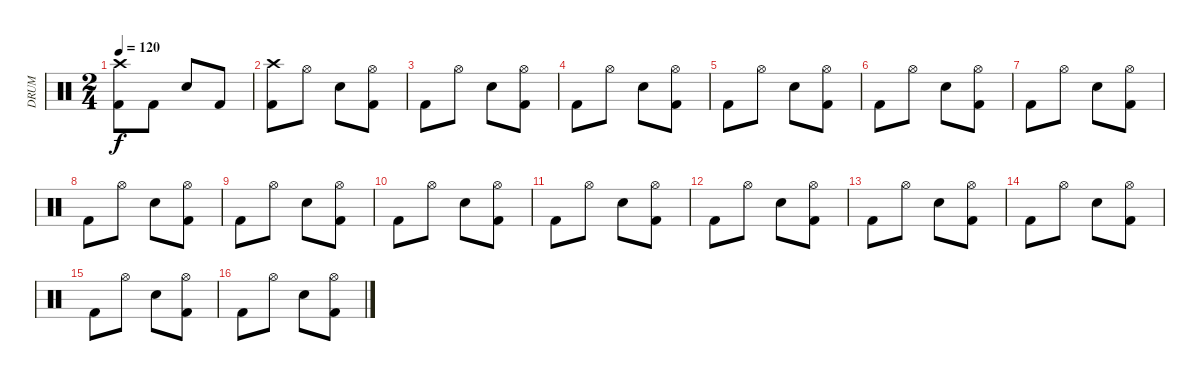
\track ("DRUM" "DRUM") {instrument percussion}
\staff {score}
\articulation defaults
\ts (2 4)
\tempo 120
\clef neutral
\ks c
("Crash high (hit)" "Kick (hit) 2").8{dy f} "Kick (hit) 2".8 "Electric Snare (hit)".8 "Kick (hit) 2".8 |
("Crash high (hit)" "Kick (hit) 2").8 "Hi-Hat (open)".8 "Electric Snare (hit)".8 ("Kick (hit) 2" "Hi-Hat (open)").8 |
"Kick (hit) 2".8 "Hi-Hat (open)".8 "Electric Snare (hit)".8 ("Kick (hit) 2" "Hi-Hat (open)").8 |
"Kick (hit) 2".8 "Hi-Hat (open)".8 "Electric Snare (hit)".8 ("Kick (hit) 2" "Hi-Hat (open)").8 |
"Kick (hit) 2".8 "Hi-Hat (open)".8 "Electric Snare (hit)".8 ("Kick (hit) 2" "Hi-Hat (open)").8 |
"Kick (hit) 2".8 "Hi-Hat (open)".8 "Electric Snare (hit)".8 ("Kick (hit) 2" "Hi-Hat (open)").8 |
"Kick (hit) 2".8 "Hi-Hat (open)".8 "Electric Snare (hit)".8 ("Kick (hit) 2" "Hi-Hat (open)").8 |
"Kick (hit) 2".8 "Hi-Hat (open)".8 "Electric Snare (hit)".8 ("Kick (hit) 2" "Hi-Hat (open)").8 |
"Kick (hit) 2".8 "Hi-Hat (open)".8 "Electric Snare (hit)".8 ("Kick (hit) 2" "Hi-Hat (open)").8 |
"Kick (hit) 2".8 "Hi-Hat (open)".8 "Electric Snare (hit)".8 ("Kick (hit) 2" "Hi-Hat (open)").8 |
"Kick (hit) 2".8 "Hi-Hat (open)".8 "Electric Snare (hit)".8 ("Kick (hit) 2" "Hi-Hat (open)").8 |
"Kick (hit) 2".8 "Hi-Hat (open)".8 "Electric Snare (hit)".8 ("Kick (hit) 2" "Hi-Hat (open)").8 |
"Kick (hit) 2".8 "Hi-Hat (open)".8 "Electric Snare (hit)".8 ("Kick (hit) 2" "Hi-Hat (open)").8 |
"Kick (hit) 2".8 "Hi-Hat (open)".8 "Electric Snare (hit)".8 ("Kick (hit) 2" "Hi-Hat (open)").8 |
"Kick (hit) 2".8 "Hi-Hat (open)".8 "Electric Snare (hit)".8 ("Kick (hit) 2" "Hi-Hat (open)").8 |
"Kick (hit) 2".8 "Hi-Hat (open)".8 "Electric Snare (hit)".8 ("Kick (hit) 2" "Hi-Hat (open)").8
